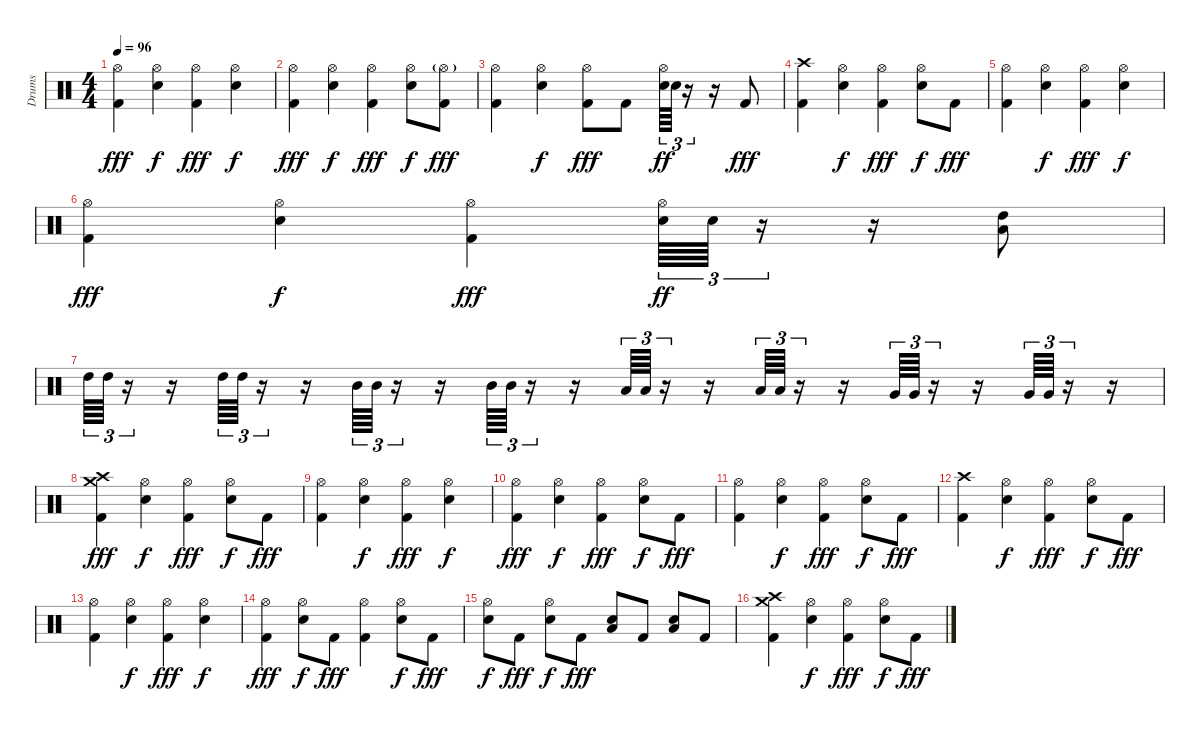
\track ("Drums" "Drums") {instrument percussion}
\staff {score}
\articulation defaults
\ts (4 4)
\tempo 96
\clef neutral
\ks c
("Hi-Hat (open)" "Kick (hit) 2").4{dy fff} ("Hi-Hat (open)" "Electric Snare (hit)").4{dy f} ("Hi-Hat (open)" "Kick (hit) 2").4{dy fff} ("Hi-Hat (open)" "Electric Snare (hit)").4{dy f} |
("Hi-Hat (open)" "Kick (hit) 2").4{dy fff} ("Hi-Hat (open)" "Electric Snare (hit)").4{dy f} ("Hi-Hat (open)" "Kick (hit) 2").4{dy fff} ("Hi-Hat (open)" "Electric Snare (hit)").8{dy f} ("Hi-Hat (open)"{g} "Kick (hit) 2").8{dy fff} |
("Hi-Hat (open)" "Kick (hit) 2").4 ("Hi-Hat (open)" "Electric Snare (hit)").4{dy f} ("Hi-Hat (open)" "Kick (hit) 2").8{dy fff} "Kick (hit) 2".8 ("Hi-Hat (open)" "Electric Snare (hit)").64{tu (3 2) dy ff} "Electric Snare (hit)".64{tu (3 2)} r.16{tu (3 2)} r.16 "Kick (hit) 2".8{dy fff} |
("Crash high (hit)" "Kick (hit) 2").4 ("Hi-Hat (open)" "Electric Snare (hit)").4{dy f} ("Hi-Hat (open)" "Kick (hit) 2").4{dy fff} ("Hi-Hat (open)" "Electric Snare (hit)").8{dy f} "Kick (hit) 2".8{dy fff} |
("Hi-Hat (open)" "Kick (hit) 2").4 ("Hi-Hat (open)" "Electric Snare (hit)").4{dy f} ("Hi-Hat (open)" "Kick (hit) 2").4{dy fff} ("Hi-Hat (open)" "Electric Snare (hit)").4{dy f} |
("Hi-Hat (open)" "Kick (hit) 2").4{dy fff} ("Hi-Hat (open)" "Electric Snare (hit)").4{dy f} ("Hi-Hat (open)" "Kick (hit) 2").4{dy fff} ("Hi-Hat (open)" "Electric Snare (hit)").64{tu (3 2) dy ff} "Electric Snare (hit)".64{tu (3 2)} r.16{tu (3 2)} r.16 ("Low Tom (hit)" "High Tom (hit)").8 |
"High Tom (hit)".64{tu (3 2)} "High Tom (hit)".64{tu (3 2)} r.16{tu (3 2)} r.16 "High Tom (hit)".64{tu (3 2)} "High Tom (hit)".64{tu (3 2)} r.16{tu (3 2)} r.16 "Mid Tom (hit)".64{tu (3 2)} "Mid Tom (hit)".64{tu (3 2)} r.16{tu (3 2)} r.16 "Mid Tom (hit)".64{tu (3 2)} "Mid Tom (hit)".64{tu (3 2)} r.16{tu (3 2)} r.16 "Low Tom (hit)".64{tu (3 2)} "Low Tom (hit)".64{tu (3 2)} r.16{tu (3 2)} r.16 "Low Tom (hit)".64{tu (3 2)} "Low Tom (hit)".64{tu (3 2)} r.16{tu (3 2)} r.16 "Very Low Tom (hit)".64{tu (3 2)} "Very Low Tom (hit)".64{tu (3 2)} r.16{tu (3 2)} r.16 "Very Low Tom (hit)".64{tu (3 2)} "Very Low Tom (hit)".64{tu (3 2)} r.16{tu (3 2)} r.16 |
("Crash high (hit)" "Crash medium (hit)" "Kick (hit) 2").4{dy fff} ("Hi-Hat (open)" "Electric Snare (hit)").4{dy f} ("Hi-Hat (open)" "Kick (hit) 2").4{dy fff} ("Hi-Hat (open)" "Electric Snare (hit)").8{dy f} "Kick (hit) 2".8{dy fff} |
("Hi-Hat (open)" "Kick (hit) 2").4 ("Hi-Hat (open)" "Electric Snare (hit)").4{dy f} ("Hi-Hat (open)" "Kick (hit) 2").4{dy fff} ("Hi-Hat (open)" "Electric Snare (hit)").4{dy f} |
("Hi-Hat (open)" "Kick (hit) 2").4{dy fff} ("Hi-Hat (open)" "Electric Snare (hit)").4{dy f} ("Hi-Hat (open)" "Kick (hit) 2").4{dy fff} ("Hi-Hat (open)" "Electric Snare (hit)").8{dy f} "Kick (hit) 2".8{dy fff} |
("Hi-Hat (open)" "Kick (hit) 2").4 ("Hi-Hat (open)" "Electric Snare (hit)").4{dy f} ("Hi-Hat (open)" "Kick (hit) 2").4{dy fff} ("Hi-Hat (open)" "Electric Snare (hit)").8{dy f} "Kick (hit) 2".8{dy fff} |
("Crash high (hit)" "Kick (hit) 2").4 ("Hi-Hat (open)" "Electric Snare (hit)").4{dy f} ("Hi-Hat (open)" "Kick (hit) 2").4{dy fff} ("Hi-Hat (open)" "Electric Snare (hit)").8{dy f} "Kick (hit) 2".8{dy fff} |
("Hi-Hat (open)" "Kick (hit) 2").4 ("Hi-Hat (open)" "Electric Snare (hit)").4{dy f} ("Hi-Hat (open)" "Kick (hit) 2").4{dy fff} ("Hi-Hat (open)" "Electric Snare (hit)").4{dy f} |
("Hi-Hat (open)" "Kick (hit) 2").4{dy fff} ("Hi-Hat (open)" "Electric Snare (hit)").8{dy f} "Kick (hit) 2".8{dy fff} ("Hi-Hat (open)" "Kick (hit) 2").4 ("Hi-Hat (open)" "Electric Snare (hit)").8{dy f} "Kick (hit) 2".8{dy fff} |
("Hi-Hat (open)" "Electric Snare (hit)").8{dy f} "Kick (hit) 2".8{dy fff} ("Hi-Hat (open)" "Electric Snare (hit)").8{dy f} "Kick (hit) 2".8{dy fff} ("Electric Snare (hit)" "Low Floor Tom (hit)").8 "Kick (hit) 2".8 ("Electric Snare (hit)" "Low Floor Tom (hit)").8 "Kick (hit) 2".8 |
("Crash high (hit)" "Crash medium (hit)" "Kick (hit) 2").4 ("Hi-Hat (open)" "Electric Snare (hit)").4{dy f} ("Hi-Hat (open)" "Kick (hit) 2").4{dy fff} ("Hi-Hat (open)" "Electric Snare (hit)").8{dy f} "Kick (hit) 2".8{dy fff}
